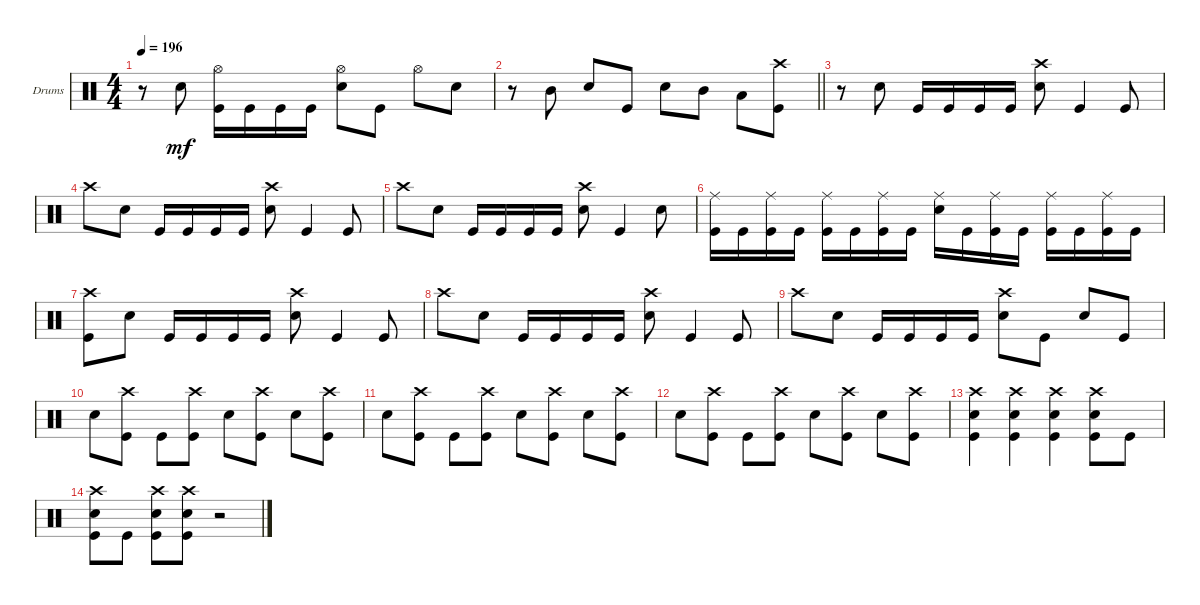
\defaultSystemsLayout 4
\bracketExtendMode groupsimilarinstruments
\firstSystemTrackNameOrientation horizontal
\otherSystemsTrackNameOrientation horizontal
\track ("Drumkit" "Drums") {instrument percussion}
\staff {score}
\articulation defaults
\ts (4 4)
\tempo 196
\clef neutral
\ks c
r.8{dy mf} "Snare (hit) 2".8 ("Kick (hit)" "Hi-Hat (open)").16 "Kick (hit)".16 "Kick (hit)".16 "Kick (hit)".16 ("Snare (hit) 2" "Hi-Hat (open)").8 "Kick (hit)".8 "Hi-Hat (open)".8 "Snare (hit) 2".8 |
\barLineRight lightlight
r.8 "Mid Tom (hit)".8 "Snare (hit) 2".8 "Kick (hit)".8 "Snare (hit) 2".8 "Mid Tom (hit)".8 "Low Tom (hit)".8 ("Crash high (hit)" "Kick (hit)").8 |
r.8 "Snare (hit) 2".8 "Kick (hit)".16 "Kick (hit)".16 "Kick (hit)".16 "Kick (hit)".16 ("Snare (hit) 2" "Crash high (hit)").8 "Kick (hit)".4 "Kick (hit)".8 |
"Crash high (hit)".8 "Snare (hit) 2".8 "Kick (hit)".16 "Kick (hit)".16 "Kick (hit)".16 "Kick (hit)".16 ("Snare (hit) 2" "Crash high (hit)").8 "Kick (hit)".4 "Kick (hit)".8 |
"Crash high (hit)".8 "Snare (hit) 2".8 "Kick (hit)".16 "Kick (hit)".16 "Kick (hit)".16 "Kick (hit)".16 ("Snare (hit) 2" "Crash high (hit)").8 "Kick (hit)".4 "Snare (hit) 2".8 |
("Kick (hit)" "Ride (middle)").16 "Kick (hit)".16 ("Kick (hit)" "Ride (middle)").16 "Kick (hit)".16 ("Kick (hit)" "Ride (middle)").16 "Kick (hit)".16 ("Kick (hit)" "Ride (middle)").16 "Kick (hit)".16 ("Snare (hit) 2" "Ride (middle)").16 "Kick (hit)".16 ("Kick (hit)" "Ride (middle)").16 "Kick (hit)".16 ("Kick (hit)" "Ride (middle)").16 "Kick (hit)".16 ("Kick (hit)" "Ride (middle)").16 "Kick (hit)".16 |
("Kick (hit)" "Crash high (hit)").8 "Snare (hit) 2".8 "Kick (hit)".16 "Kick (hit)".16 "Kick (hit)".16 "Kick (hit)".16 ("Snare (hit) 2" "Crash high (hit)").8 "Kick (hit)".4 "Kick (hit)".8 |
"Crash high (hit)".8 "Snare (hit) 2".8 "Kick (hit)".16 "Kick (hit)".16 "Kick (hit)".16 "Kick (hit)".16 ("Snare (hit) 2" "Crash high (hit)").8 "Kick (hit)".4 "Kick (hit)".8 |
"Crash high (hit)".8 "Snare (hit) 2".8 "Kick (hit)".16 "Kick (hit)".16 "Kick (hit)".16 "Kick (hit)".16 ("Snare (hit) 2" "Crash high (hit)").8 "Kick (hit)".8 "Snare (hit) 2".8 "Kick (hit)".8 |
"Snare (hit) 2".8 ("Kick (hit)" "Crash high (hit)").8 "Kick (hit)".8 ("Kick (hit)" "Crash high (hit)").8 "Snare (hit) 2".8 ("Kick (hit)" "Crash high (hit)").8 "Snare (hit) 2".8 ("Kick (hit)" "Crash high (hit)").8 |
"Snare (hit) 2".8 ("Kick (hit)" "Crash high (hit)").8 "Kick (hit)".8 ("Kick (hit)" "Crash high (hit)").8 "Snare (hit) 2".8 ("Kick (hit)" "Crash high (hit)").8 "Snare (hit) 2".8 ("Kick (hit)" "Crash high (hit)").8 |
"Snare (hit) 2".8 ("Kick (hit)" "Crash high (hit)").8 "Kick (hit)".8 ("Kick (hit)" "Crash high (hit)").8 "Snare (hit) 2".8 ("Kick (hit)" "Crash high (hit)").8 "Snare (hit) 2".8 ("Kick (hit)" "Crash high (hit)").8 |
("Kick (hit)" "Snare (hit) 2" "Crash high (hit)").4 ("Kick (hit)" "Snare (hit) 2" "Crash high (hit)").4 ("Kick (hit)" "Snare (hit) 2" "Crash high (hit)").4 ("Kick (hit)" "Snare (hit) 2" "Crash high (hit)").8 "Kick (hit)".8 |
("Kick (hit)" "Snare (hit) 2" "Crash high (hit)").8 "Kick (hit)".8 ("Kick (hit)" "Snare (hit) 2" "Crash high (hit)").8 ("Kick (hit)" "Snare (hit) 2" "Crash high (hit)").8 r.2
